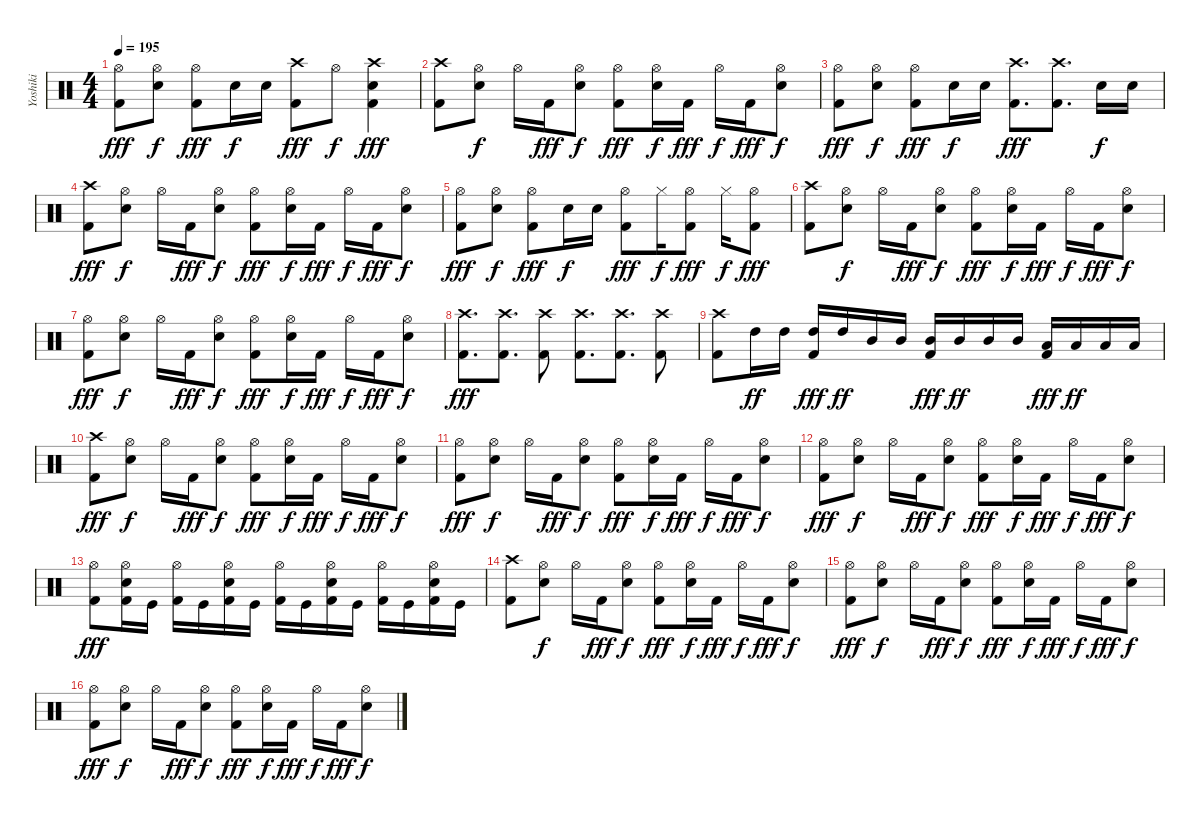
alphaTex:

\track ("Yoshiki" "Yoshiki") {instrument percussion}
\staff {score}
\articulation defaults
\ts (4 4)
\tempo 195
\clef neutral
\ks c
("Hi-Hat (open)" "Kick (hit) 2").8{dy fff} ("Hi-Hat (open)" "Electric Snare (hit)").8{dy f} ("Hi-Hat (open)" "Kick (hit) 2").8{dy fff} "Electric Snare (hit)".16{dy f} "Electric Snare (hit)".16 ("Crash high (hit)" "Kick (hit) 2").8{dy fff} "Hi-Hat (open)".8{dy f} ("Crash high (hit)" "Electric Snare (hit)" "Kick (hit) 2").4{dy fff} |
("Crash high (hit)" "Kick (hit) 2").8 ("Hi-Hat (open)" "Electric Snare (hit)").8{dy f} "Hi-Hat (open)".16 "Kick (hit) 2".16{dy fff} ("Hi-Hat (open)" "Electric Snare (hit)").8{dy f} ("Hi-Hat (open)" "Kick (hit) 2").8{dy fff} ("Hi-Hat (open)" "Electric Snare (hit)").16{dy f} "Kick (hit) 2".16{dy fff} "Hi-Hat (open)".16{dy f} "Kick (hit) 2".16{dy fff} ("Hi-Hat (open)" "Electric Snare (hit)").8{dy f} |
("Hi-Hat (open)" "Kick (hit) 2").8{dy fff} ("Hi-Hat (open)" "Electric Snare (hit)").8{dy f} ("Hi-Hat (open)" "Kick (hit) 2").8{dy fff} "Electric Snare (hit)".16{dy f} "Electric Snare (hit)".16 ("Crash high (hit)" "Kick (hit) 2").8{d dy fff} ("Crash high (hit)" "Kick (hit) 2").8{d} "Electric Snare (hit)".16{dy f} "Electric Snare (hit)".16 |
("Crash high (hit)" "Kick (hit) 2").8{dy fff} ("Hi-Hat (open)" "Electric Snare (hit)").8{dy f} "Hi-Hat (open)".16 "Kick (hit) 2".16{dy fff} ("Hi-Hat (open)" "Electric Snare (hit)").8{dy f} ("Hi-Hat (open)" "Kick (hit) 2").8{dy fff} ("Hi-Hat (open)" "Electric Snare (hit)").16{dy f} "Kick (hit) 2".16{dy fff} "Hi-Hat (open)".16{dy f} "Kick (hit) 2".16{dy fff} ("Hi-Hat (open)" "Electric Snare (hit)").8{dy f} |
("Hi-Hat (open)" "Kick (hit) 2").8{dy fff} ("Hi-Hat (open)" "Electric Snare (hit)").8{dy f} ("Hi-Hat (open)" "Kick (hit) 2").8{dy fff} "Electric Snare (hit)".16{dy f} "Electric Snare (hit)".16 ("Hi-Hat (open)" "Kick (hit) 2").8{dy fff} "Hi-Hat (closed)".16{dy f} ("Hi-Hat (open)" "Kick (hit) 2").8{dy fff} "Hi-Hat (closed)".16{dy f} ("Hi-Hat (open)" "Kick (hit) 2").8{dy fff} |
("Crash high (hit)" "Kick (hit) 2").8 ("Hi-Hat (open)" "Electric Snare (hit)").8{dy f} "Hi-Hat (open)".16 "Kick (hit) 2".16{dy fff} ("Hi-Hat (open)" "Electric Snare (hit)").8{dy f} ("Hi-Hat (open)" "Kick (hit) 2").8{dy fff} ("Hi-Hat (open)" "Electric Snare (hit)").16{dy f} "Kick (hit) 2".16{dy fff} "Hi-Hat (open)".16{dy f} "Kick (hit) 2".16{dy fff} ("Hi-Hat (open)" "Electric Snare (hit)").8{dy f} |
("Hi-Hat (open)" "Kick (hit) 2").8{dy fff} ("Hi-Hat (open)" "Electric Snare (hit)").8{dy f} "Hi-Hat (open)".16 "Kick (hit) 2".16{dy fff} ("Hi-Hat (open)" "Electric Snare (hit)").8{dy f} ("Hi-Hat (open)" "Kick (hit) 2").8{dy fff} ("Hi-Hat (open)" "Electric Snare (hit)").16{dy f} "Kick (hit) 2".16{dy fff} "Hi-Hat (open)".16{dy f} "Kick (hit) 2".16{dy fff} ("Hi-Hat (open)" "Electric Snare (hit)").8{dy f} |
("Crash high (hit)" "Kick (hit) 2").8{d dy fff} ("Crash high (hit)" "Kick (hit) 2").8{d} ("Crash high (hit)" "Kick (hit) 2").8 ("Crash high (hit)" "Kick (hit) 2").8{d} ("Crash high (hit)" "Kick (hit) 2").8{d} ("Crash high (hit)" "Kick (hit) 2").8 |
("Crash high (hit)" "Kick (hit) 2").8 "High Tom (hit)".16{dy ff} "High Tom (hit)".16 ("High Tom (hit)" "Kick (hit) 2").16{dy fff} "High Tom (hit)".16{dy ff} "Mid Tom (hit)".16 "Mid Tom (hit)".16 ("Mid Tom (hit)" "Kick (hit) 2").16{dy fff} "Mid Tom (hit)".16{dy ff} "Mid Tom (hit)".16 "Mid Tom (hit)".16 ("Low Tom (hit)" "Kick (hit) 2").16{dy fff} "Low Tom (hit)".16{dy ff} "Low Tom (hit)".16 "Low Tom (hit)".16 |
("Crash high (hit)" "Kick (hit) 2").8{dy fff} ("Hi-Hat (open)" "Electric Snare (hit)").8{dy f} "Hi-Hat (open)".16 "Kick (hit) 2".16{dy fff} ("Hi-Hat (open)" "Electric Snare (hit)").8{dy f} ("Hi-Hat (open)" "Kick (hit) 2").8{dy fff} ("Hi-Hat (open)" "Electric Snare (hit)").16{dy f} "Kick (hit) 2".16{dy fff} "Hi-Hat (open)".16{dy f} "Kick (hit) 2".16{dy fff} ("Hi-Hat (open)" "Electric Snare (hit)").8{dy f} |
("Hi-Hat (open)" "Kick (hit) 2").8{dy fff} ("Hi-Hat (open)" "Electric Snare (hit)").8{dy f} "Hi-Hat (open)".16 "Kick (hit) 2".16{dy fff} ("Hi-Hat (open)" "Electric Snare (hit)").8{dy f} ("Hi-Hat (open)" "Kick (hit) 2").8{dy fff} ("Hi-Hat (open)" "Electric Snare (hit)").16{dy f} "Kick (hit) 2".16{dy fff} "Hi-Hat (open)".16{dy f} "Kick (hit) 2".16{dy fff} ("Hi-Hat (open)" "Electric Snare (hit)").8{dy f} |
("Hi-Hat (open)" "Kick (hit) 2").8{dy fff} ("Hi-Hat (open)" "Electric Snare (hit)").8{dy f} "Hi-Hat (open)".16 "Kick (hit) 2".16{dy fff} ("Hi-Hat (open)" "Electric Snare (hit)").8{dy f} ("Hi-Hat (open)" "Kick (hit) 2").8{dy fff} ("Hi-Hat (open)" "Electric Snare (hit)").16{dy f} "Kick (hit) 2".16{dy fff} "Hi-Hat (open)".16{dy f} "Kick (hit) 2".16{dy fff} ("Hi-Hat (open)" "Electric Snare (hit)").8{dy f} |
("Hi-Hat (open)" "Kick (hit) 2").8{dy fff} ("Hi-Hat (open)" "Electric Snare (hit)" "Kick (hit) 2").16 "Kick (hit)".16 ("Hi-Hat (open)" "Kick (hit) 2").16 "Kick (hit)".16 ("Hi-Hat (open)" "Electric Snare (hit)" "Kick (hit) 2").16 "Kick (hit)".16 ("Hi-Hat (open)" "Kick (hit) 2").16 "Kick (hit)".16 ("Hi-Hat (open)" "Electric Snare (hit)" "Kick (hit) 2").16 "Kick (hit)".16 ("Hi-Hat (open)" "Kick (hit) 2").16 "Kick (hit)".16 ("Hi-Hat (open)" "Electric Snare (hit)" "Kick (hit) 2").16 "Kick (hit)".16 |
("Crash high (hit)" "Kick (hit) 2").8 ("Hi-Hat (open)" "Electric Snare (hit)").8{dy f} "Hi-Hat (open)".16 "Kick (hit) 2".16{dy fff} ("Hi-Hat (open)" "Electric Snare (hit)").8{dy f} ("Hi-Hat (open)" "Kick (hit) 2").8{dy fff} ("Hi-Hat (open)" "Electric Snare (hit)").16{dy f} "Kick (hit) 2".16{dy fff} "Hi-Hat (open)".16{dy f} "Kick (hit) 2".16{dy fff} ("Hi-Hat (open)" "Electric Snare (hit)").8{dy f} |
("Hi-Hat (open)" "Kick (hit) 2").8{dy fff} ("Hi-Hat (open)" "Electric Snare (hit)").8{dy f} "Hi-Hat (open)".16 "Kick (hit) 2".16{dy fff} ("Hi-Hat (open)" "Electric Snare (hit)").8{dy f} ("Hi-Hat (open)" "Kick (hit) 2").8{dy fff} ("Hi-Hat (open)" "Electric Snare (hit)").16{dy f} "Kick (hit) 2".16{dy fff} "Hi-Hat (open)".16{dy f} "Kick (hit) 2".16{dy fff} ("Hi-Hat (open)" "Electric Snare (hit)").8{dy f} |
("Hi-Hat (open)" "Kick (hit) 2").8{dy fff} ("Hi-Hat (open)" "Electric Snare (hit)").8{dy f} "Hi-Hat (open)".16 "Kick (hit) 2".16{dy fff} ("Hi-Hat (open)" "Electric Snare (hit)").8{dy f} ("Hi-Hat (open)" "Kick (hit) 2").8{dy fff} ("Hi-Hat (open)" "Electric Snare (hit)").16{dy f} "Kick (hit) 2".16{dy fff} "Hi-Hat (open)".16{dy f} "Kick (hit) 2".16{dy fff} ("Hi-Hat (open)" "Electric Snare (hit)").8{dy f}
